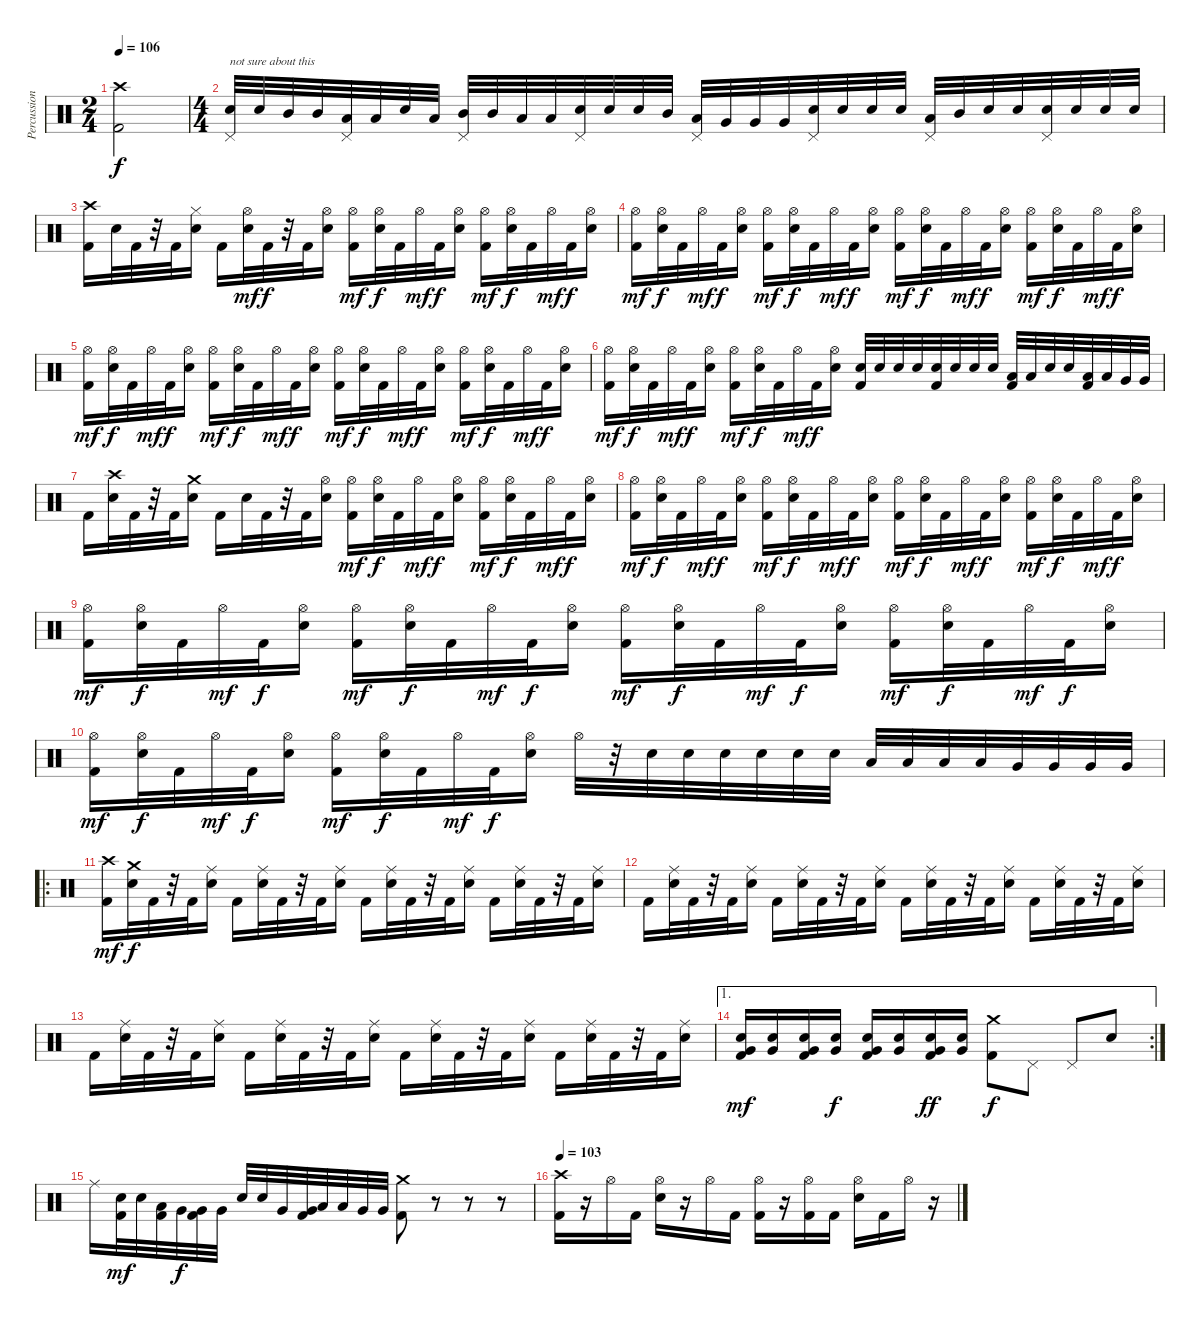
\track ("Percussion" "Percussion") {instrument percussion}
\staff {score}
\articulation defaults
\ts (2 4)
\tempo 106
\clef neutral
\ks c
("Crash high (hit)" "Kick (hit) 2").2{dy f} |
\ts (4 4)
("Pedal Hi-Hat (hit)" "Electric Snare (hit)").32{txt "not sure about this"} "Electric Snare (hit)".32 "Mid Tom (hit)".32 "Mid Tom (hit)".32 ("Pedal Hi-Hat (hit)" "Low Tom (hit)").32 "Low Tom (hit)".32 "Electric Snare (hit)".32 "Low Tom (hit)".32 ("Pedal Hi-Hat (hit)" "Mid Tom (hit)").32 "Mid Tom (hit)".32 "Low Tom (hit)".32 "Low Tom (hit)".32 ("Pedal Hi-Hat (hit)" "Electric Snare (hit)").32 "Electric Snare (hit)".32 "Electric Snare (hit)".32 "Mid Tom (hit)".32 ("Pedal Hi-Hat (hit)" "Low Tom (hit)").32 "Very Low Tom (hit)".32 "Very Low Tom (hit)".32 "Very Low Tom (hit)".32 ("Pedal Hi-Hat (hit)" "Electric Snare (hit)").32 "Electric Snare (hit)".32 "Electric Snare (hit)".32 "Electric Snare (hit)".32 ("Pedal Hi-Hat (hit)" "Low Tom (hit)").32 "Mid Tom (hit)".32 "Electric Snare (hit)".32 "Electric Snare (hit)".32 ("Pedal Hi-Hat (hit)" "Electric Snare (hit)").32 "Electric Snare (hit)".32 "Electric Snare (hit)".32 "Electric Snare (hit)".32 |
("Crash high (hit)" "Kick (hit) 2").16 "Electric Snare (hit)".32 "Kick (hit) 2".32 r.32 "Kick (hit) 2".32 ("Hi-Hat (closed)" "Electric Snare (hit)").16 "Kick (hit) 2".16 ("Hi-Hat (open)" "Electric Snare (hit)").32{dy mf} "Kick (hit) 2".32{dy f} r.32 "Kick (hit) 2".32 ("Hi-Hat (open)" "Electric Snare (hit)").16 ("Hi-Hat (open)" "Kick (hit) 2").16{dy mf} ("Hi-Hat (open)" "Electric Snare (hit)").32{dy f} "Kick (hit) 2".32 "Hi-Hat (open)".32{dy mf} "Kick (hit) 2".32{dy f} ("Hi-Hat (open)" "Electric Snare (hit)").16 ("Hi-Hat (open)" "Kick (hit) 2").16{dy mf} ("Hi-Hat (open)" "Electric Snare (hit)").32{dy f} "Kick (hit) 2".32 "Hi-Hat (open)".32{dy mf} "Kick (hit) 2".32{dy f} ("Hi-Hat (open)" "Electric Snare (hit)").16 |
("Hi-Hat (open)" "Kick (hit) 2").16{dy mf} ("Hi-Hat (open)" "Electric Snare (hit)").32{dy f} "Kick (hit) 2".32 "Hi-Hat (open)".32{dy mf} "Kick (hit) 2".32{dy f} ("Hi-Hat (open)" "Electric Snare (hit)").16 ("Hi-Hat (open)" "Kick (hit) 2").16{dy mf} ("Hi-Hat (open)" "Electric Snare (hit)").32{dy f} "Kick (hit) 2".32 "Hi-Hat (open)".32{dy mf} "Kick (hit) 2".32{dy f} ("Hi-Hat (open)" "Electric Snare (hit)").16 ("Hi-Hat (open)" "Kick (hit) 2").16{dy mf} ("Hi-Hat (open)" "Electric Snare (hit)").32{dy f} "Kick (hit) 2".32 "Hi-Hat (open)".32{dy mf} "Kick (hit) 2".32{dy f} ("Hi-Hat (open)" "Electric Snare (hit)").16 ("Hi-Hat (open)" "Kick (hit) 2").16{dy mf} ("Hi-Hat (open)" "Electric Snare (hit)").32{dy f} "Kick (hit) 2".32 "Hi-Hat (open)".32{dy mf} "Kick (hit) 2".32{dy f} ("Hi-Hat (open)" "Electric Snare (hit)").16 |
("Hi-Hat (open)" "Kick (hit) 2").16{dy mf} ("Hi-Hat (open)" "Electric Snare (hit)").32{dy f} "Kick (hit) 2".32 "Hi-Hat (open)".32{dy mf} "Kick (hit) 2".32{dy f} ("Hi-Hat (open)" "Electric Snare (hit)").16 ("Hi-Hat (open)" "Kick (hit) 2").16{dy mf} ("Hi-Hat (open)" "Electric Snare (hit)").32{dy f} "Kick (hit) 2".32 "Hi-Hat (open)".32{dy mf} "Kick (hit) 2".32{dy f} ("Hi-Hat (open)" "Electric Snare (hit)").16 ("Hi-Hat (open)" "Kick (hit) 2").16{dy mf} ("Hi-Hat (open)" "Electric Snare (hit)").32{dy f} "Kick (hit) 2".32 "Hi-Hat (open)".32{dy mf} "Kick (hit) 2".32{dy f} ("Hi-Hat (open)" "Electric Snare (hit)").16 ("Hi-Hat (open)" "Kick (hit) 2").16{dy mf} ("Hi-Hat (open)" "Electric Snare (hit)").32{dy f} "Kick (hit) 2".32 "Hi-Hat (open)".32{dy mf} "Kick (hit) 2".32{dy f} ("Hi-Hat (open)" "Electric Snare (hit)").16 |
("Hi-Hat (open)" "Kick (hit) 2").16{dy mf} ("Hi-Hat (open)" "Electric Snare (hit)").32{dy f} "Kick (hit) 2".32 "Hi-Hat (open)".32{dy mf} "Kick (hit) 2".32{dy f} ("Hi-Hat (open)" "Electric Snare (hit)").16 ("Hi-Hat (open)" "Kick (hit) 2").16{dy mf} ("Hi-Hat (open)" "Electric Snare (hit)").32{dy f} "Kick (hit) 2".32 "Hi-Hat (open)".32{dy mf} "Kick (hit) 2".32{dy f} ("Hi-Hat (open)" "Electric Snare (hit)").16 ("Electric Snare (hit)" "Kick (hit) 2").32 "Electric Snare (hit)".32 "Electric Snare (hit)".32 "Electric Snare (hit)".32 ("Electric Snare (hit)" "Kick (hit) 2").32 "Electric Snare (hit)".32 "Electric Snare (hit)".32 "Electric Snare (hit)".32 ("Low Tom (hit)" "Kick (hit) 2").32 "Low Tom (hit)".32 "Electric Snare (hit)".32 "Electric Snare (hit)".32 ("Low Tom (hit)" "Kick (hit) 2").32 "Low Tom (hit)".32 "Very Low Tom (hit)".32 "Very Low Tom (hit)".32 |
"Kick (hit) 2".16 ("Crash high (hit)" "Electric Snare (hit)").32 "Kick (hit) 2".32 r.32 "Kick (hit) 2".32 ("Crash medium (hit)" "Electric Snare (hit)").16 "Kick (hit) 2".16 "Electric Snare (hit)".32 "Kick (hit) 2".32 r.32 "Kick (hit) 2".32 ("Hi-Hat (open)" "Electric Snare (hit)").16 ("Hi-Hat (open)" "Kick (hit) 2").16{dy mf} ("Hi-Hat (open)" "Electric Snare (hit)").32{dy f} "Kick (hit) 2".32 "Hi-Hat (open)".32{dy mf} "Kick (hit) 2".32{dy f} ("Hi-Hat (open)" "Electric Snare (hit)").16 ("Hi-Hat (open)" "Kick (hit) 2").16{dy mf} ("Hi-Hat (open)" "Electric Snare (hit)").32{dy f} "Kick (hit) 2".32 "Hi-Hat (open)".32{dy mf} "Kick (hit) 2".32{dy f} ("Hi-Hat (open)" "Electric Snare (hit)").16 |
("Hi-Hat (open)" "Kick (hit) 2").16{dy mf} ("Hi-Hat (open)" "Electric Snare (hit)").32{dy f} "Kick (hit) 2".32 "Hi-Hat (open)".32{dy mf} "Kick (hit) 2".32{dy f} ("Hi-Hat (open)" "Electric Snare (hit)").16 ("Hi-Hat (open)" "Kick (hit) 2").16{dy mf} ("Hi-Hat (open)" "Electric Snare (hit)").32{dy f} "Kick (hit) 2".32 "Hi-Hat (open)".32{dy mf} "Kick (hit) 2".32{dy f} ("Hi-Hat (open)" "Electric Snare (hit)").16 ("Hi-Hat (open)" "Kick (hit) 2").16{dy mf} ("Hi-Hat (open)" "Electric Snare (hit)").32{dy f} "Kick (hit) 2".32 "Hi-Hat (open)".32{dy mf} "Kick (hit) 2".32{dy f} ("Hi-Hat (open)" "Electric Snare (hit)").16 ("Hi-Hat (open)" "Kick (hit) 2").16{dy mf} ("Hi-Hat (open)" "Electric Snare (hit)").32{dy f} "Kick (hit) 2".32 "Hi-Hat (open)".32{dy mf} "Kick (hit) 2".32{dy f} ("Hi-Hat (open)" "Electric Snare (hit)").16 |
("Hi-Hat (open)" "Kick (hit) 2").16{dy mf} ("Hi-Hat (open)" "Electric Snare (hit)").32{dy f} "Kick (hit) 2".32 "Hi-Hat (open)".32{dy mf} "Kick (hit) 2".32{dy f} ("Hi-Hat (open)" "Electric Snare (hit)").16 ("Hi-Hat (open)" "Kick (hit) 2").16{dy mf} ("Hi-Hat (open)" "Electric Snare (hit)").32{dy f} "Kick (hit) 2".32 "Hi-Hat (open)".32{dy mf} "Kick (hit) 2".32{dy f} ("Hi-Hat (open)" "Electric Snare (hit)").16 ("Hi-Hat (open)" "Kick (hit) 2").16{dy mf} ("Hi-Hat (open)" "Electric Snare (hit)").32{dy f} "Kick (hit) 2".32 "Hi-Hat (open)".32{dy mf} "Kick (hit) 2".32{dy f} ("Hi-Hat (open)" "Electric Snare (hit)").16 ("Hi-Hat (open)" "Kick (hit) 2").16{dy mf} ("Hi-Hat (open)" "Electric Snare (hit)").32{dy f} "Kick (hit) 2".32 "Hi-Hat (open)".32{dy mf} "Kick (hit) 2".32{dy f} ("Hi-Hat (open)" "Electric Snare (hit)").16 |
("Hi-Hat (open)" "Kick (hit) 2").16{dy mf} ("Hi-Hat (open)" "Electric Snare (hit)").32{dy f} "Kick (hit) 2".32 "Hi-Hat (open)".32{dy mf} "Kick (hit) 2".32{dy f} ("Hi-Hat (open)" "Electric Snare (hit)").16 ("Hi-Hat (open)" "Kick (hit) 2").16{dy mf} ("Hi-Hat (open)" "Electric Snare (hit)").32{dy f} "Kick (hit) 2".32 "Hi-Hat (open)".32{dy mf} "Kick (hit) 2".32{dy f} ("Hi-Hat (open)" "Electric Snare (hit)").16 "Hi-Hat (open)".32 r.32 "Electric Snare (hit)".32 "Electric Snare (hit)".32 "Electric Snare (hit)".32 "Electric Snare (hit)".32 "Electric Snare (hit)".32 "Electric Snare (hit)".32 "Low Tom (hit)".32 "Low Tom (hit)".32 "Low Tom (hit)".32 "Low Tom (hit)".32 "Very Low Tom (hit)".32 "Very Low Tom (hit)".32 "Very Low Tom (hit)".32 "Very Low Tom (hit)".32 |
\ro
("Crash high (hit)" "Kick (hit) 2").16{dy mf} ("Crash medium (hit)" "Electric Snare (hit)").32{dy f} "Kick (hit) 2".32 r.32 "Kick (hit) 2".32 ("Ride (middle)" "Electric Snare (hit)").16 "Kick (hit) 2".16 ("Ride (middle)" "Electric Snare (hit)").32 "Kick (hit) 2".32 r.32 "Kick (hit) 2".32 ("Ride (middle)" "Electric Snare (hit)").16 "Kick (hit) 2".16 ("Ride (middle)" "Electric Snare (hit)").32 "Kick (hit) 2".32 r.32 "Kick (hit) 2".32 ("Ride (middle)" "Electric Snare (hit)").16 "Kick (hit) 2".16 ("Ride (middle)" "Electric Snare (hit)").32 "Kick (hit) 2".32 r.32 "Kick (hit) 2".32 ("Ride (middle)" "Electric Snare (hit)").16 |
"Kick (hit) 2".16 ("Ride (middle)" "Electric Snare (hit)").32 "Kick (hit) 2".32 r.32 "Kick (hit) 2".32 ("Ride (middle)" "Electric Snare (hit)").16 "Kick (hit) 2".16 ("Ride (middle)" "Electric Snare (hit)").32 "Kick (hit) 2".32 r.32 "Kick (hit) 2".32 ("Ride (middle)" "Electric Snare (hit)").16 "Kick (hit) 2".16 ("Ride (middle)" "Electric Snare (hit)").32 "Kick (hit) 2".32 r.32 "Kick (hit) 2".32 ("Ride (middle)" "Electric Snare (hit)").16 "Kick (hit) 2".16 ("Ride (middle)" "Electric Snare (hit)").32 "Kick (hit) 2".32 r.32 "Kick (hit) 2".32 ("Ride (middle)" "Electric Snare (hit)").16 |
"Kick (hit) 2".16 ("Ride (middle)" "Electric Snare (hit)").32 "Kick (hit) 2".32 r.32 "Kick (hit) 2".32 ("Ride (middle)" "Electric Snare (hit)").16 "Kick (hit) 2".16 ("Ride (middle)" "Electric Snare (hit)").32 "Kick (hit) 2".32 r.32 "Kick (hit) 2".32 ("Ride (middle)" "Electric Snare (hit)").16 "Kick (hit) 2".16 ("Ride (middle)" "Electric Snare (hit)").32 "Kick (hit) 2".32 r.32 "Kick (hit) 2".32 ("Ride (middle)" "Electric Snare (hit)").16 "Kick (hit) 2".16 ("Ride (middle)" "Electric Snare (hit)").32 "Kick (hit) 2".32 r.32 "Kick (hit) 2".32 ("Ride (middle)" "Electric Snare (hit)").16 |
\ae 1
\rc 2
("Very Low Tom (hit)" "Electric Snare (hit)" "Kick (hit) 2").16{dy mf} ("Very Low Tom (hit)" "Electric Snare (hit)").16 ("Very Low Tom (hit)" "Electric Snare (hit)" "Kick (hit) 2").16 ("Very Low Tom (hit)" "Electric Snare (hit)").16{dy f} ("Very Low Tom (hit)" "Electric Snare (hit)" "Kick (hit) 2").16 ("Very Low Tom (hit)" "Electric Snare (hit)").16 ("Very Low Tom (hit)" "Electric Snare (hit)" "Kick (hit) 2").16{dy ff} ("Very Low Tom (hit)" "Electric Snare (hit)").16 ("Crash medium (hit)" "Kick (hit) 2").8{dy f} "Pedal Hi-Hat (hit)".8 "Pedal Hi-Hat (hit)".8 "Electric Snare (hit)".8 |
"Ride (middle)".16 ("Electric Snare (hit)" "Kick (hit) 2").32{dy mf} "Electric Snare (hit)".32 ("Low Tom (hit)" "Kick (hit) 2").32 "Very Low Tom (hit)".32{dy f} ("Very Low Tom (hit)" "Kick (hit) 2").32 "Very Low Tom (hit)".32 "Electric Snare (hit)".32 "Electric Snare (hit)".32 "Very Low Tom (hit)".32 ("Very Low Tom (hit)" "Kick (hit) 2").32 "Low Tom (hit)".32 "Low Tom (hit)".32 "Very Low Tom (hit)".32 "Very Low Tom (hit)".32 ("Crash medium (hit)" "Kick (hit) 2").8 r.8 r.8 r.8 |
\tempo 103
("Crash high (hit)" "Kick (hit) 2").16 r.16 "Hi-Hat (open)".16 "Kick (hit) 2".16 ("Hi-Hat (open)" "Electric Snare (hit)").16 r.16 "Hi-Hat (open)".16 "Kick (hit) 2".16 ("Hi-Hat (open)" "Kick (hit) 2").16 r.16 ("Hi-Hat (open)" "Kick (hit) 2").16 "Kick (hit) 2".16 ("Hi-Hat (open)" "Electric Snare (hit)").16 "Kick (hit) 2".16 "Hi-Hat (open)".16 r.16
